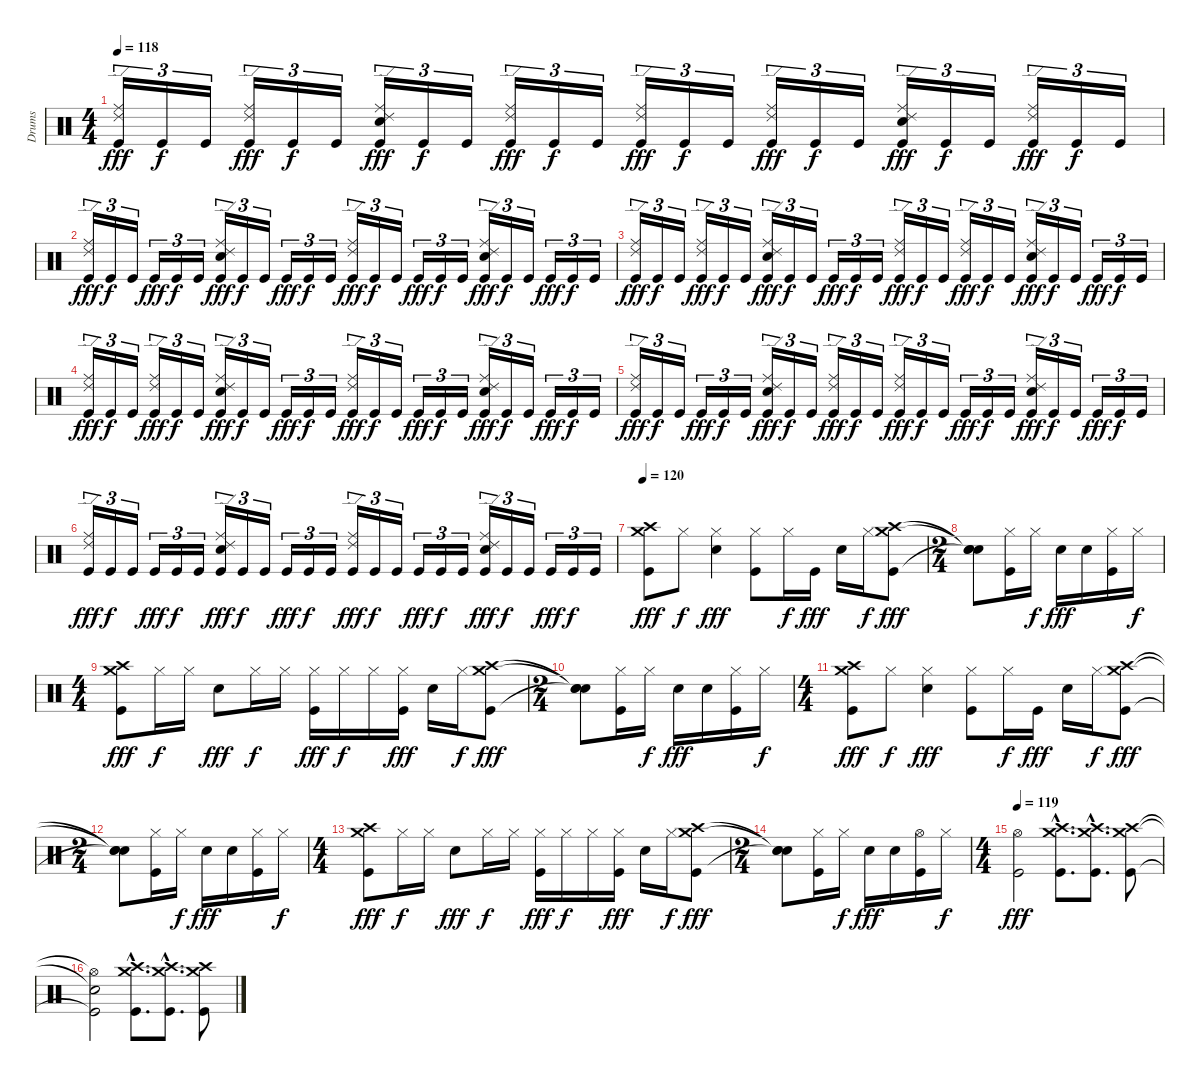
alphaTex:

\track ("Drums" "Drums") {instrument percussion}
\staff {score}
\articulation defaults
\ts (4 4)
\tempo 118
\clef neutral
\ks c
("Ride (edge) 2" "Ride (middle)" "Kick (hit)").16{tu (3 2) dy fff} "Kick (hit)".16{tu (3 2) dy f} "Kick (hit)".16{tu (3 2)} ("Ride (edge) 2" "Ride (middle)" "Kick (hit)").16{tu (3 2) dy fff} "Kick (hit)".16{tu (3 2) dy f} "Kick (hit)".16{tu (3 2)} ("Ride (edge) 2" "Ride (middle)" "Snare (hit) 2" "Kick (hit)").16{tu (3 2) dy fff} "Kick (hit)".16{tu (3 2) dy f} "Kick (hit)".16{tu (3 2)} ("Ride (edge) 2" "Ride (middle)" "Kick (hit)").16{tu (3 2) dy fff} "Kick (hit)".16{tu (3 2) dy f} "Kick (hit)".16{tu (3 2)} ("Ride (edge) 2" "Ride (middle)" "Kick (hit)").16{tu (3 2) dy fff} "Kick (hit)".16{tu (3 2) dy f} "Kick (hit)".16{tu (3 2)} ("Ride (edge) 2" "Ride (middle)" "Kick (hit)").16{tu (3 2) dy fff} "Kick (hit)".16{tu (3 2) dy f} "Kick (hit)".16{tu (3 2)} ("Ride (edge) 2" "Ride (middle)" "Snare (hit) 2" "Kick (hit)").16{tu (3 2) dy fff} "Kick (hit)".16{tu (3 2) dy f} "Kick (hit)".16{tu (3 2)} ("Ride (edge) 2" "Ride (middle)" "Kick (hit)").16{tu (3 2) dy fff} "Kick (hit)".16{tu (3 2) dy f} "Kick (hit)".16{tu (3 2)} |
("Ride (edge) 2" "Ride (middle)" "Kick (hit)").16{tu (3 2) dy fff} "Kick (hit)".16{tu (3 2) dy f} "Kick (hit)".16{tu (3 2)} "Kick (hit)".16{tu (3 2) dy fff} "Kick (hit)".16{tu (3 2) dy f} "Kick (hit)".16{tu (3 2)} ("Ride (edge) 2" "Ride (middle)" "Snare (hit) 2" "Kick (hit)").16{tu (3 2) dy fff} "Kick (hit)".16{tu (3 2) dy f} "Kick (hit)".16{tu (3 2)} "Kick (hit)".16{tu (3 2) dy fff} "Kick (hit)".16{tu (3 2) dy f} "Kick (hit)".16{tu (3 2)} ("Ride (edge) 2" "Ride (middle)" "Kick (hit)").16{tu (3 2) dy fff} "Kick (hit)".16{tu (3 2) dy f} "Kick (hit)".16{tu (3 2)} "Kick (hit)".16{tu (3 2) dy fff} "Kick (hit)".16{tu (3 2) dy f} "Kick (hit)".16{tu (3 2)} ("Ride (edge) 2" "Ride (middle)" "Snare (hit) 2" "Kick (hit)").16{tu (3 2) dy fff} "Kick (hit)".16{tu (3 2) dy f} "Kick (hit)".16{tu (3 2)} "Kick (hit)".16{tu (3 2) dy fff} "Kick (hit)".16{tu (3 2) dy f} "Kick (hit)".16{tu (3 2)} |
("Ride (edge) 2" "Ride (middle)" "Kick (hit)").16{tu (3 2) dy fff} "Kick (hit)".16{tu (3 2) dy f} "Kick (hit)".16{tu (3 2)} ("Ride (edge) 2" "Ride (middle)" "Kick (hit)").16{tu (3 2) dy fff} "Kick (hit)".16{tu (3 2) dy f} "Kick (hit)".16{tu (3 2)} ("Ride (edge) 2" "Ride (middle)" "Snare (hit) 2" "Kick (hit)").16{tu (3 2) dy fff} "Kick (hit)".16{tu (3 2) dy f} "Kick (hit)".16{tu (3 2)} "Kick (hit)".16{tu (3 2) dy fff} "Kick (hit)".16{tu (3 2) dy f} "Kick (hit)".16{tu (3 2)} ("Ride (edge) 2" "Ride (middle)" "Kick (hit)").16{tu (3 2) dy fff} "Kick (hit)".16{tu (3 2) dy f} "Kick (hit)".16{tu (3 2)} ("Ride (edge) 2" "Ride (middle)" "Kick (hit)").16{tu (3 2) dy fff} "Kick (hit)".16{tu (3 2) dy f} "Kick (hit)".16{tu (3 2)} ("Ride (edge) 2" "Ride (middle)" "Snare (hit) 2" "Kick (hit)").16{tu (3 2) dy fff} "Kick (hit)".16{tu (3 2) dy f} "Kick (hit)".16{tu (3 2)} "Kick (hit)".16{tu (3 2) dy fff} "Kick (hit)".16{tu (3 2) dy f} "Kick (hit)".16{tu (3 2)} |
("Ride (edge) 2" "Ride (middle)" "Kick (hit)").16{tu (3 2) dy fff} "Kick (hit)".16{tu (3 2) dy f} "Kick (hit)".16{tu (3 2)} ("Ride (edge) 2" "Ride (middle)" "Kick (hit)").16{tu (3 2) dy fff} "Kick (hit)".16{tu (3 2) dy f} "Kick (hit)".16{tu (3 2)} ("Ride (edge) 2" "Ride (middle)" "Snare (hit) 2" "Kick (hit)").16{tu (3 2) dy fff} "Kick (hit)".16{tu (3 2) dy f} "Kick (hit)".16{tu (3 2)} "Kick (hit)".16{tu (3 2) dy fff} "Kick (hit)".16{tu (3 2) dy f} "Kick (hit)".16{tu (3 2)} ("Ride (edge) 2" "Ride (middle)" "Kick (hit)").16{tu (3 2) dy fff} "Kick (hit)".16{tu (3 2) dy f} "Kick (hit)".16{tu (3 2)} "Kick (hit)".16{tu (3 2) dy fff} "Kick (hit)".16{tu (3 2) dy f} "Kick (hit)".16{tu (3 2)} ("Ride (edge) 2" "Ride (middle)" "Snare (hit) 2" "Kick (hit)").16{tu (3 2) dy fff} "Kick (hit)".16{tu (3 2) dy f} "Kick (hit)".16{tu (3 2)} "Kick (hit)".16{tu (3 2) dy fff} "Kick (hit)".16{tu (3 2) dy f} "Kick (hit)".16{tu (3 2)} |
("Ride (edge) 2" "Ride (middle)" "Kick (hit)").16{tu (3 2) dy fff} "Kick (hit)".16{tu (3 2) dy f} "Kick (hit)".16{tu (3 2)} "Kick (hit)".16{tu (3 2) dy fff} "Kick (hit)".16{tu (3 2) dy f} "Kick (hit)".16{tu (3 2)} ("Ride (edge) 2" "Ride (middle)" "Snare (hit) 2" "Kick (hit)").16{tu (3 2) dy fff} "Kick (hit)".16{tu (3 2) dy f} "Kick (hit)".16{tu (3 2)} ("Ride (edge) 2" "Ride (middle)" "Kick (hit)").16{tu (3 2) dy fff} "Kick (hit)".16{tu (3 2) dy f} "Kick (hit)".16{tu (3 2)} ("Ride (edge) 2" "Ride (middle)" "Kick (hit)").16{tu (3 2) dy fff} "Kick (hit)".16{tu (3 2) dy f} "Kick (hit)".16{tu (3 2)} "Kick (hit)".16{tu (3 2) dy fff} "Kick (hit)".16{tu (3 2) dy f} "Kick (hit)".16{tu (3 2)} ("Ride (edge) 2" "Ride (middle)" "Snare (hit) 2" "Kick (hit)").16{tu (3 2) dy fff} "Kick (hit)".16{tu (3 2) dy f} "Kick (hit)".16{tu (3 2)} "Kick (hit)".16{tu (3 2) dy fff} "Kick (hit)".16{tu (3 2) dy f} "Kick (hit)".16{tu (3 2)} |
("Ride (edge) 2" "Ride (middle)" "Kick (hit)").16{tu (3 2) dy fff} "Kick (hit)".16{tu (3 2) dy f} "Kick (hit)".16{tu (3 2)} "Kick (hit)".16{tu (3 2) dy fff} "Kick (hit)".16{tu (3 2) dy f} "Kick (hit)".16{tu (3 2)} ("Ride (edge) 2" "Ride (middle)" "Snare (hit) 2" "Kick (hit)").16{tu (3 2) dy fff} "Kick (hit)".16{tu (3 2) dy f} "Kick (hit)".16{tu (3 2)} "Kick (hit)".16{tu (3 2) dy fff} "Kick (hit)".16{tu (3 2) dy f} "Kick (hit)".16{tu (3 2)} ("Ride (edge) 2" "Ride (middle)" "Kick (hit)").16{tu (3 2) dy fff} "Kick (hit)".16{tu (3 2) dy f} "Kick (hit)".16{tu (3 2)} "Kick (hit)".16{tu (3 2) dy fff} "Kick (hit)".16{tu (3 2) dy f} "Kick (hit)".16{tu (3 2)} ("Ride (edge) 2" "Ride (middle)" "Snare (hit) 2" "Kick (hit)").16{tu (3 2) dy fff} "Kick (hit)".16{tu (3 2) dy f} "Kick (hit)".16{tu (3 2)} "Kick (hit)".16{tu (3 2) dy fff} "Kick (hit)".16{tu (3 2) dy f} "Kick (hit)".16{tu (3 2)} |
\tempo 120
("Crash high (hit)" "Crash medium (hit)" "Kick (hit)").8{dy fff} "Hi-Hat (closed)".8{dy f} ("Hi-Hat (closed)" "Snare (hit) 2").4{dy fff} ("Hi-Hat (closed)" "Kick (hit)").8 "Hi-Hat (closed)".16{dy f} "Kick (hit)".16{dy fff} "Snare (hit) 2".16 "Hi-Hat (closed)".16{dy f} ("Crash high (hit)" "Crash medium (hit)" "Kick (hit)").8{dy fff} |
\ts (2 4)
("Snare (hit)"{t} "Snare (hit)"{t} "Snare (hit)"{t}).8 ("Hi-Hat (closed)" "Kick (hit)").16 "Hi-Hat (closed)".16{dy f} "Snare (hit) 2".16{dy fff} "Snare (hit) 2".16 ("Hi-Hat (closed)" "Kick (hit)").16 "Hi-Hat (closed)".16{dy f} |
\ts (4 4)
("Crash high (hit)" "Crash medium (hit)" "Kick (hit)").8{dy fff} "Hi-Hat (closed)".16{dy f} "Hi-Hat (closed)".16 "Snare (hit) 2".8{dy fff} "Hi-Hat (closed)".16{dy f} "Hi-Hat (closed)".16 ("Hi-Hat (closed)" "Kick (hit)").16{dy fff} "Hi-Hat (closed)".16{dy f} "Hi-Hat (closed)".16 ("Hi-Hat (closed)" "Kick (hit)").16{dy fff} "Snare (hit) 2".16 "Hi-Hat (closed)".16{dy f} ("Crash high (hit)" "Crash medium (hit)" "Kick (hit)").8{dy fff} |
\ts (2 4)
("Snare (hit)"{t} "Snare (hit)"{t} "Snare (hit)"{t}).8 ("Hi-Hat (closed)" "Kick (hit)").16 "Hi-Hat (closed)".16{dy f} "Snare (hit) 2".16{dy fff} "Snare (hit) 2".16 ("Hi-Hat (closed)" "Kick (hit)").16 "Hi-Hat (closed)".16{dy f} |
\ts (4 4)
("Crash high (hit)" "Crash medium (hit)" "Kick (hit)").8{dy fff} "Hi-Hat (closed)".8{dy f} ("Hi-Hat (closed)" "Snare (hit) 2").4{dy fff} ("Hi-Hat (closed)" "Kick (hit)").8 "Hi-Hat (closed)".16{dy f} "Kick (hit)".16{dy fff} "Snare (hit) 2".16 "Hi-Hat (closed)".16{dy f} ("Crash high (hit)" "Crash medium (hit)" "Kick (hit)").8{dy fff} |
\ts (2 4)
("Snare (hit)"{t} "Snare (hit)"{t} "Snare (hit)"{t}).8 ("Hi-Hat (closed)" "Kick (hit)").16 "Hi-Hat (closed)".16{dy f} "Snare (hit) 2".16{dy fff} "Snare (hit) 2".16 ("Hi-Hat (closed)" "Kick (hit)").16 "Hi-Hat (closed)".16{dy f} |
\ts (4 4)
("Crash high (hit)" "Crash medium (hit)" "Kick (hit)").8{dy fff} "Hi-Hat (closed)".16{dy f} "Hi-Hat (closed)".16 "Snare (hit) 2".8{dy fff} "Hi-Hat (closed)".16{dy f} "Hi-Hat (closed)".16 ("Hi-Hat (closed)" "Kick (hit)").16{dy fff} "Hi-Hat (closed)".16{dy f} "Hi-Hat (closed)".16 ("Hi-Hat (closed)" "Kick (hit)").16{dy fff} "Snare (hit) 2".16 "Hi-Hat (closed)".16{dy f} ("Crash high (hit)" "Crash medium (hit)" "Kick (hit)").8{dy fff} |
\ts (2 4)
("Snare (hit)"{t} "Snare (hit)"{t} "Snare (hit)"{t}).8 ("Hi-Hat (closed)" "Kick (hit)").16 "Hi-Hat (closed)".16{dy f} "Snare (hit) 2".16{dy fff} "Snare (hit) 2".16 ("Hi-Hat (open)" "Kick (hit)").16 "Hi-Hat (closed)".16{dy f} |
\ts (4 4)
\tempo 119
("Hi-Hat (open)" "Kick (hit)").2{dy fff} ("Crash high (hit)"{hac} "Crash medium (hit)"{hac} "Kick (hit)"{hac}).8{d} ("Crash high (hit)"{hac} "Crash medium (hit)"{hac} "Kick (hit)"{hac}).8{d} ("Crash high (hit)" "Crash medium (hit)" "Kick (hit)").8 |
("Hi-Hat (open)"{t} "Snare (hit)"{t} "Kick (hit)"{t}).2 ("Crash high (hit)"{hac} "Crash medium (hit)"{hac} "Kick (hit)"{hac}).8{d} ("Crash high (hit)"{hac} "Crash medium (hit)"{hac} "Kick (hit)"{hac}).8{d} ("Crash high (hit)" "Crash medium (hit)" "Kick (hit)").8
